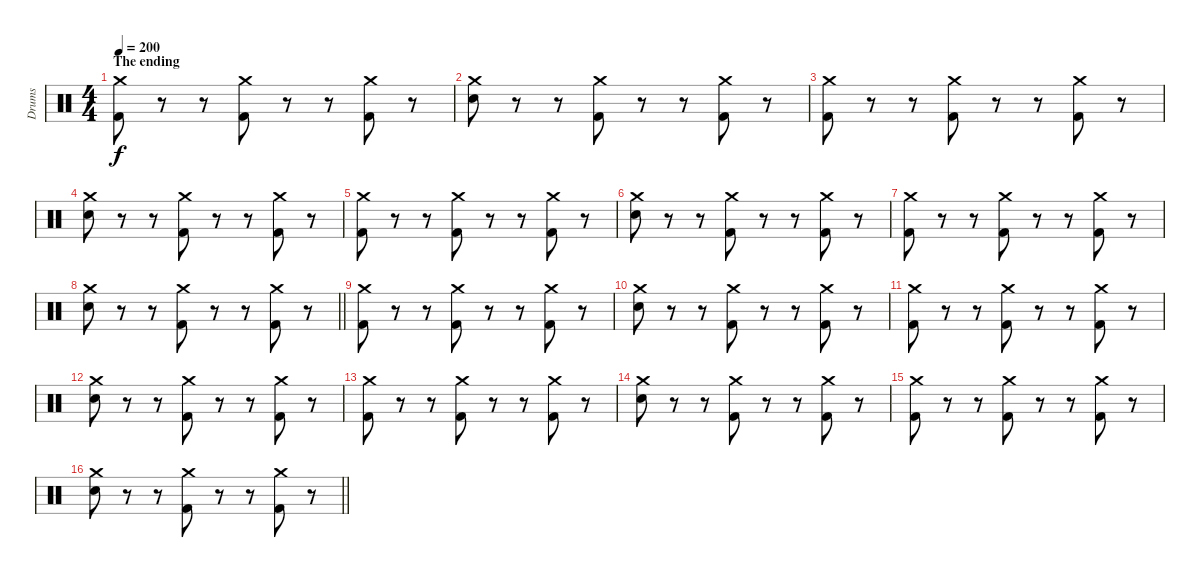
\track ("Drums" "Drums") {instrument percussion}
\staff {score}
\articulation defaults
\ts (4 4)
\section ("" "The ending")
\tempo 200
\clef neutral
\ks c
("Crash medium (hit)" "Kick (hit) 2").8{dy f} r.8 r.8 ("Crash medium (hit)" "Kick (hit) 2").8 r.8 r.8 ("Crash medium (hit)" "Kick (hit) 2").8 r.8 |
("Crash medium (hit)" "Electric Snare (hit)").8 r.8 r.8 ("Crash medium (hit)" "Kick (hit) 2").8 r.8 r.8 ("Crash medium (hit)" "Kick (hit) 2").8 r.8 |
("Crash medium (hit)" "Kick (hit) 2").8 r.8 r.8 ("Crash medium (hit)" "Kick (hit) 2").8 r.8 r.8 ("Crash medium (hit)" "Kick (hit) 2").8 r.8 |
("Crash medium (hit)" "Electric Snare (hit)").8 r.8 r.8 ("Crash medium (hit)" "Kick (hit) 2").8 r.8 r.8 ("Crash medium (hit)" "Kick (hit) 2").8 r.8 |
("Crash medium (hit)" "Kick (hit) 2").8 r.8 r.8 ("Crash medium (hit)" "Kick (hit) 2").8 r.8 r.8 ("Crash medium (hit)" "Kick (hit) 2").8 r.8 |
("Crash medium (hit)" "Electric Snare (hit)").8 r.8 r.8 ("Crash medium (hit)" "Kick (hit) 2").8 r.8 r.8 ("Crash medium (hit)" "Kick (hit) 2").8 r.8 |
("Crash medium (hit)" "Kick (hit) 2").8 r.8 r.8 ("Crash medium (hit)" "Kick (hit) 2").8 r.8 r.8 ("Crash medium (hit)" "Kick (hit) 2").8 r.8 |
\barLineRight lightlight
("Crash medium (hit)" "Electric Snare (hit)").8 r.8 r.8 ("Crash medium (hit)" "Kick (hit) 2").8 r.8 r.8 ("Crash medium (hit)" "Kick (hit) 2").8 r.8 |
("Crash medium (hit)" "Kick (hit) 2").8 r.8 r.8 ("Crash medium (hit)" "Kick (hit) 2").8 r.8 r.8 ("Crash medium (hit)" "Kick (hit) 2").8 r.8 |
("Crash medium (hit)" "Electric Snare (hit)").8 r.8 r.8 ("Crash medium (hit)" "Kick (hit) 2").8 r.8 r.8 ("Crash medium (hit)" "Kick (hit) 2").8 r.8 |
("Crash medium (hit)" "Kick (hit) 2").8 r.8 r.8 ("Crash medium (hit)" "Kick (hit) 2").8 r.8 r.8 ("Crash medium (hit)" "Kick (hit) 2").8 r.8 |
("Crash medium (hit)" "Electric Snare (hit)").8 r.8 r.8 ("Crash medium (hit)" "Kick (hit) 2").8 r.8 r.8 ("Crash medium (hit)" "Kick (hit) 2").8 r.8 |
("Crash medium (hit)" "Kick (hit) 2").8 r.8 r.8 ("Crash medium (hit)" "Kick (hit) 2").8 r.8 r.8 ("Crash medium (hit)" "Kick (hit) 2").8 r.8 |
("Crash medium (hit)" "Electric Snare (hit)").8 r.8 r.8 ("Crash medium (hit)" "Kick (hit) 2").8 r.8 r.8 ("Crash medium (hit)" "Kick (hit) 2").8 r.8 |
("Crash medium (hit)" "Kick (hit) 2").8 r.8 r.8 ("Crash medium (hit)" "Kick (hit) 2").8 r.8 r.8 ("Crash medium (hit)" "Kick (hit) 2").8 r.8 |
\barLineRight lightlight
("Crash medium (hit)" "Electric Snare (hit)").8 r.8 r.8 ("Crash medium (hit)" "Kick (hit) 2").8 r.8 r.8 ("Crash medium (hit)" "Kick (hit) 2").8 r.8
